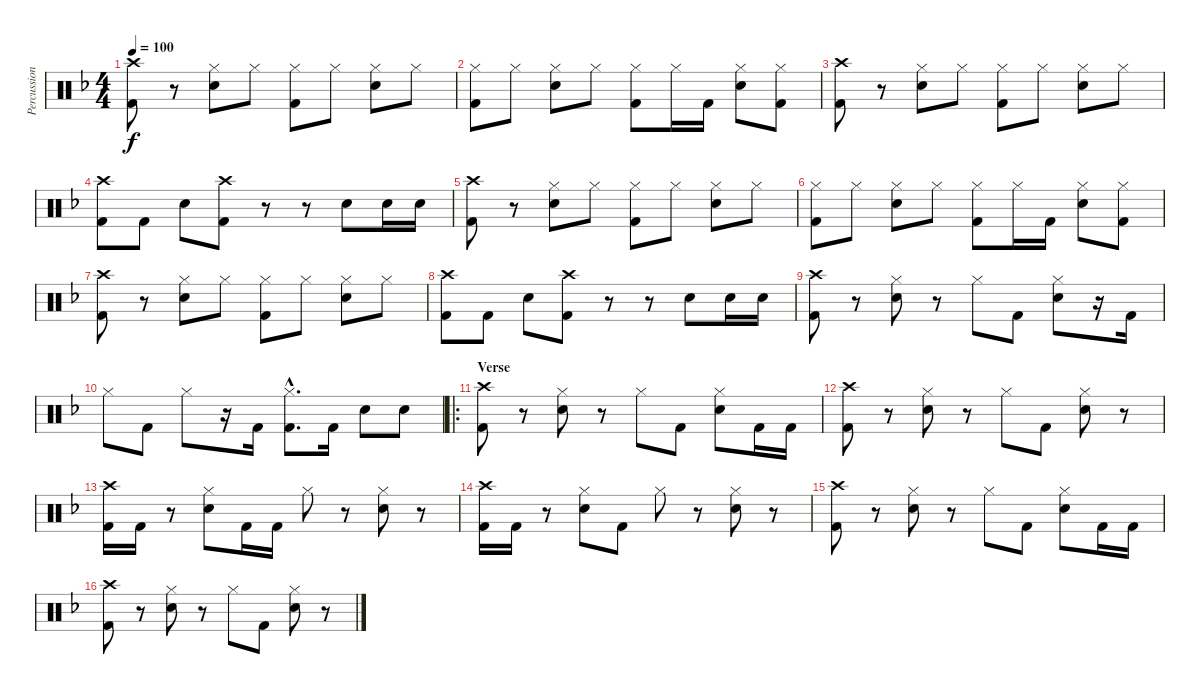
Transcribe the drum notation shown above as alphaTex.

\track ("Percussion" "Percussion") {instrument percussion}
\staff {score}
\articulation defaults
\ts (4 4)
\tempo 100
\clef neutral
\ks dminor
("Crash high (hit)" "Kick (hit) 2").8{dy f} r.8 ("Hi-Hat (closed)" "Snare (hit) 2").8 "Hi-Hat (closed)".8 ("Hi-Hat (closed)" "Kick (hit) 2").8 "Hi-Hat (closed)".8 ("Hi-Hat (closed)" "Snare (hit) 2").8 "Hi-Hat (closed)".8 |
("Hi-Hat (closed)" "Kick (hit) 2").8 "Hi-Hat (closed)".8 ("Hi-Hat (closed)" "Snare (hit) 2").8 "Hi-Hat (closed)".8 ("Hi-Hat (closed)" "Kick (hit) 2").8 "Hi-Hat (closed)".16 "Kick (hit) 2".16 ("Hi-Hat (closed)" "Snare (hit) 2").8 ("Hi-Hat (closed)" "Kick (hit) 2").8 |
("Crash high (hit)" "Kick (hit) 2").8 r.8 ("Hi-Hat (closed)" "Snare (hit) 2").8 "Hi-Hat (closed)".8 ("Hi-Hat (closed)" "Kick (hit) 2").8 "Hi-Hat (closed)".8 ("Hi-Hat (closed)" "Snare (hit) 2").8 "Hi-Hat (closed)".8 |
("Crash high (hit)" "Kick (hit) 2").8 "Kick (hit) 2".8 "Snare (hit) 2".8 ("Crash high (hit)" "Kick (hit) 2").8 r.8 r.8 "Snare (hit) 2".8 "Snare (hit) 2".16 "Snare (hit) 2".16 |
("Crash high (hit)" "Kick (hit) 2").8 r.8 ("Hi-Hat (closed)" "Snare (hit) 2").8 "Hi-Hat (closed)".8 ("Hi-Hat (closed)" "Kick (hit) 2").8 "Hi-Hat (closed)".8 ("Hi-Hat (closed)" "Snare (hit) 2").8 "Hi-Hat (closed)".8 |
("Hi-Hat (closed)" "Kick (hit) 2").8 "Hi-Hat (closed)".8 ("Hi-Hat (closed)" "Snare (hit) 2").8 "Hi-Hat (closed)".8 ("Hi-Hat (closed)" "Kick (hit) 2").8 "Hi-Hat (closed)".16 "Kick (hit) 2".16 ("Hi-Hat (closed)" "Snare (hit) 2").8 ("Hi-Hat (closed)" "Kick (hit) 2").8 |
("Crash high (hit)" "Kick (hit) 2").8 r.8 ("Hi-Hat (closed)" "Snare (hit) 2").8 "Hi-Hat (closed)".8 ("Hi-Hat (closed)" "Kick (hit) 2").8 "Hi-Hat (closed)".8 ("Hi-Hat (closed)" "Snare (hit) 2").8 "Hi-Hat (closed)".8 |
("Crash high (hit)" "Kick (hit) 2").8 "Kick (hit) 2".8 "Snare (hit) 2".8 ("Crash high (hit)" "Kick (hit) 2").8 r.8 r.8 "Snare (hit) 2".8 "Snare (hit) 2".16 "Snare (hit) 2".16 |
("Crash high (hit)" "Kick (hit) 2").8 r.8 ("Hi-Hat (closed)" "Snare (hit) 2").8 r.8 "Hi-Hat (closed)".8 "Kick (hit) 2".8 ("Hi-Hat (closed)" "Snare (hit) 2").8 r.16 "Kick (hit) 2".16 |
"Hi-Hat (closed)".8 "Kick (hit) 2".8 "Hi-Hat (closed)".8 r.16 "Kick (hit) 2".16 ("Hi-Hat (closed)"{hac} "Kick (hit) 2"{hac}).8{d} "Kick (hit) 2".16 "Snare (hit) 2".8 "Snare (hit) 2".8 |
\ro
\section ("" "Verse")
("Crash high (hit)" "Kick (hit) 2").8 r.8 ("Hi-Hat (closed)" "Snare (hit) 2").8 r.8 "Hi-Hat (closed)".8 "Kick (hit) 2".8 ("Hi-Hat (closed)" "Snare (hit) 2").8 "Kick (hit) 2".16 "Kick (hit) 2".16 |
("Crash high (hit)" "Kick (hit) 2").8 r.8 ("Hi-Hat (closed)" "Snare (hit) 2").8 r.8 "Hi-Hat (closed)".8 "Kick (hit) 2".8 ("Hi-Hat (closed)" "Snare (hit) 2").8 r.8 |
("Crash high (hit)" "Kick (hit) 2").16 "Kick (hit) 2".16 r.8 ("Hi-Hat (closed)" "Snare (hit) 2").8 "Kick (hit) 2".16 "Kick (hit) 2".16 "Hi-Hat (closed)".8 r.8 ("Hi-Hat (closed)" "Snare (hit) 2").8 r.8 |
("Crash high (hit)" "Kick (hit) 2").16 "Kick (hit) 2".16 r.8 ("Hi-Hat (closed)" "Snare (hit) 2").8 "Kick (hit) 2".8 "Hi-Hat (closed)".8 r.8 ("Hi-Hat (closed)" "Snare (hit) 2").8 r.8 |
("Crash high (hit)" "Kick (hit) 2").8 r.8 ("Hi-Hat (closed)" "Snare (hit) 2").8 r.8 "Hi-Hat (closed)".8 "Kick (hit) 2".8 ("Hi-Hat (closed)" "Snare (hit) 2").8 "Kick (hit) 2".16 "Kick (hit) 2".16 |
("Crash high (hit)" "Kick (hit) 2").8 r.8 ("Hi-Hat (closed)" "Snare (hit) 2").8 r.8 "Hi-Hat (closed)".8 "Kick (hit) 2".8 ("Hi-Hat (closed)" "Snare (hit) 2").8 r.8
